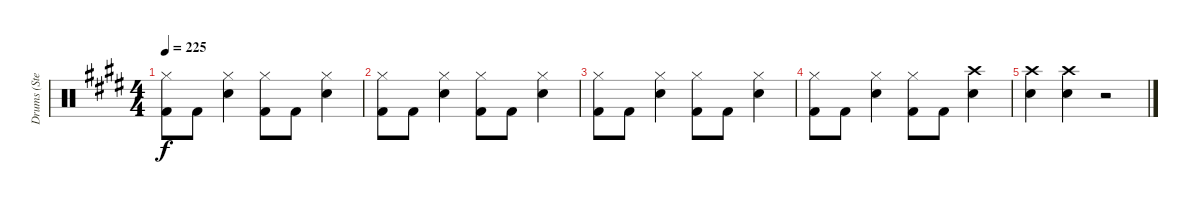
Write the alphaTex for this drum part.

\track ("Drums (Steven)" "Drums (Ste") {instrument percussion}
\staff {score}
\articulation defaults
\ts (4 4)
\tempo 225
\clef neutral
\ks e
("Hi-Hat (closed)" "Kick (hit) 2").8{dy f} "Kick (hit) 2".8 ("Hi-Hat (closed)" "Snare (hit) 2").4 ("Hi-Hat (closed)" "Kick (hit) 2").8 "Kick (hit) 2".8 ("Hi-Hat (closed)" "Snare (hit) 2").4 |
("Hi-Hat (closed)" "Kick (hit) 2").8 "Kick (hit) 2".8 ("Hi-Hat (closed)" "Snare (hit) 2").4 ("Hi-Hat (closed)" "Kick (hit) 2").8 "Kick (hit) 2".8 ("Hi-Hat (closed)" "Snare (hit) 2").4 |
("Hi-Hat (closed)" "Kick (hit) 2").8 "Kick (hit) 2".8 ("Hi-Hat (closed)" "Snare (hit) 2").4 ("Hi-Hat (closed)" "Kick (hit) 2").8 "Kick (hit) 2".8 ("Hi-Hat (closed)" "Snare (hit) 2").4 |
("Hi-Hat (closed)" "Kick (hit) 2").8 "Kick (hit) 2".8 ("Hi-Hat (closed)" "Snare (hit) 2").4 ("Hi-Hat (closed)" "Kick (hit) 2").8 "Kick (hit) 2".8 ("Crash high (hit)" "Snare (hit) 2").4 |
("Crash high (hit)" "Snare (hit) 2").4 ("Crash high (hit)" "Snare (hit) 2").4 r.2
